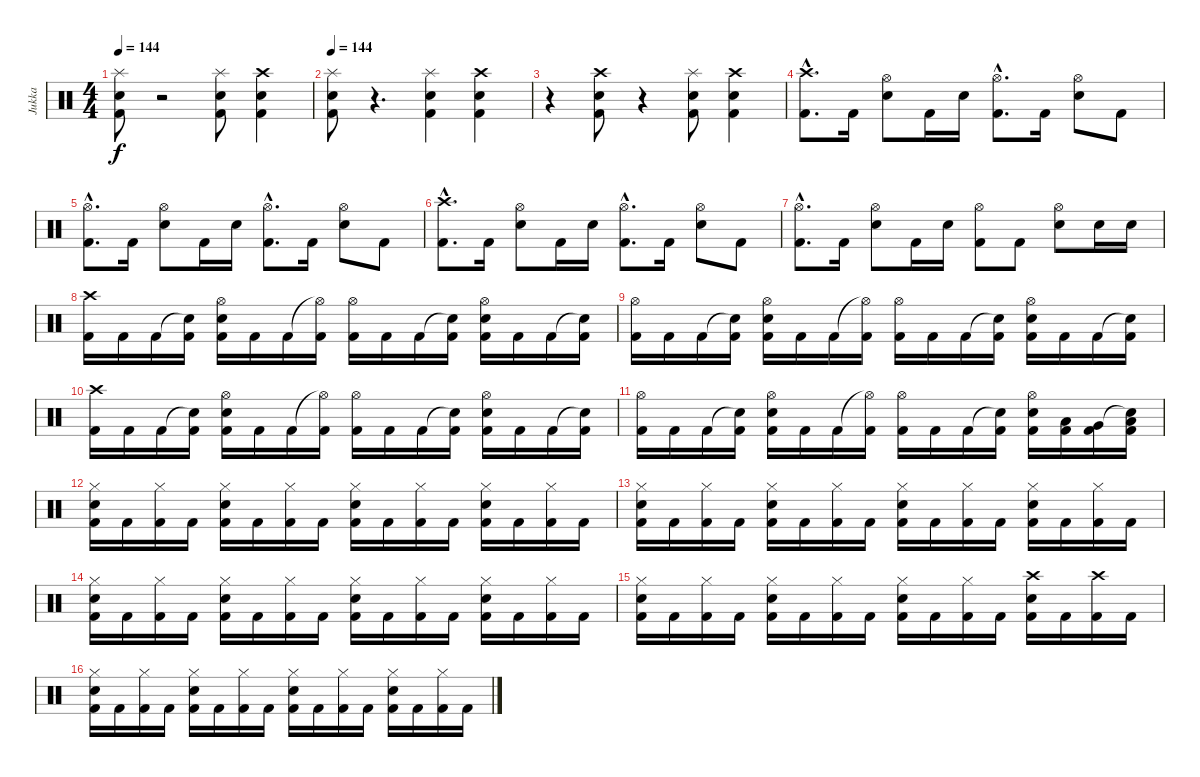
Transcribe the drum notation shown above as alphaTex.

\track ("Jukka" "Jukka") {instrument percussion}
\staff {score}
\articulation defaults
\ts (4 4)
\tempo 144
\clef neutral
\ks c
("Splash (hit)" "Electric Snare (hit)" "Kick (hit) 2").8{dy f} r.2 ("Splash (hit)" "Electric Snare (hit)" "Kick (hit) 2").8 ("Crash high (hit)" "Electric Snare (hit)" "Kick (hit) 2").4 |
\tempo 144
("Splash (hit)" "Electric Snare (hit)" "Kick (hit) 2").8 r.4{d} ("Splash (hit)" "Electric Snare (hit)" "Kick (hit) 2").4 ("Crash high (hit)" "Electric Snare (hit)" "Kick (hit) 2").4 |
r.4 ("Crash high (hit)" "Electric Snare (hit)" "Kick (hit) 2").8 r.4 ("Splash (hit)" "Electric Snare (hit)" "Kick (hit) 2").8 ("Crash high (hit)" "Electric Snare (hit)" "Kick (hit) 2").4 |
("Crash high (hit)"{hac} "Kick (hit) 2"{hac}).8{d} "Kick (hit) 2".16 ("Hi-Hat (open)" "Electric Snare (hit)").8 "Kick (hit) 2".16 "Electric Snare (hit)".16 ("Hi-Hat (open)"{hac} "Kick (hit) 2"{hac}).8{d} "Kick (hit) 2".16 ("Hi-Hat (open)" "Electric Snare (hit)").8 "Kick (hit) 2".8 |
("Hi-Hat (open)"{hac} "Kick (hit) 2"{hac}).8{d} "Kick (hit) 2".16 ("Hi-Hat (open)" "Electric Snare (hit)").8 "Kick (hit) 2".16 "Electric Snare (hit)".16 ("Hi-Hat (open)"{hac} "Kick (hit) 2"{hac}).8{d} "Kick (hit) 2".16 ("Hi-Hat (open)" "Electric Snare (hit)").8 "Kick (hit) 2".8 |
("Crash high (hit)"{hac} "Kick (hit) 2"{hac}).8{d} "Kick (hit) 2".16 ("Hi-Hat (open)" "Electric Snare (hit)").8 "Kick (hit) 2".16 "Electric Snare (hit)".16 ("Hi-Hat (open)"{hac} "Kick (hit) 2"{hac}).8{d} "Kick (hit) 2".16 ("Hi-Hat (open)" "Electric Snare (hit)").8 "Kick (hit) 2".8 |
("Hi-Hat (open)"{hac} "Kick (hit) 2"{hac}).8{d} "Kick (hit) 2".16 ("Hi-Hat (open)" "Electric Snare (hit)").8 "Kick (hit) 2".16 "Electric Snare (hit)".16 ("Hi-Hat (open)" "Kick (hit) 2").8 "Kick (hit) 2".8 ("Hi-Hat (open)" "Electric Snare (hit)").8 "Electric Snare (hit)".16 "Electric Snare (hit)".16 |
("Crash high (hit)" "Kick (hit) 2").16 "Kick (hit) 2".16 "Kick (hit) 2".16 ("Snare (hit)"{t} "Kick (hit) 2").16 ("Hi-Hat (open)" "Electric Snare (hit)" "Kick (hit) 2").16 "Kick (hit) 2".16 "Kick (hit) 2".16 ("Hi-Hat (open)"{t} "Kick (hit) 2").16 ("Hi-Hat (open)" "Kick (hit) 2").16 "Kick (hit) 2".16 "Kick (hit) 2".16 ("Snare (hit)"{t} "Kick (hit) 2").16 ("Hi-Hat (open)" "Electric Snare (hit)" "Kick (hit) 2").16 "Kick (hit) 2".16 "Kick (hit) 2".16 ("Snare (hit)"{t} "Kick (hit) 2").16 |
("Hi-Hat (open)" "Kick (hit) 2").16 "Kick (hit) 2".16 "Kick (hit) 2".16 ("Snare (hit)"{t} "Kick (hit) 2").16 ("Hi-Hat (open)" "Electric Snare (hit)" "Kick (hit) 2").16 "Kick (hit) 2".16 "Kick (hit) 2".16 ("Hi-Hat (open)"{t} "Kick (hit) 2").16 ("Hi-Hat (open)" "Kick (hit) 2").16 "Kick (hit) 2".16 "Kick (hit) 2".16 ("Snare (hit)"{t} "Kick (hit) 2").16 ("Hi-Hat (open)" "Electric Snare (hit)" "Kick (hit) 2").16 "Kick (hit) 2".16 "Kick (hit) 2".16 ("Snare (hit)"{t} "Kick (hit) 2").16 |
("Crash high (hit)" "Kick (hit) 2").16 "Kick (hit) 2".16 "Kick (hit) 2".16 ("Snare (hit)"{t} "Kick (hit) 2").16 ("Hi-Hat (open)" "Electric Snare (hit)" "Kick (hit) 2").16 "Kick (hit) 2".16 "Kick (hit) 2".16 ("Hi-Hat (open)"{t} "Kick (hit) 2").16 ("Hi-Hat (open)" "Kick (hit) 2").16 "Kick (hit) 2".16 "Kick (hit) 2".16 ("Snare (hit)"{t} "Kick (hit) 2").16 ("Hi-Hat (open)" "Electric Snare (hit)" "Kick (hit) 2").16 "Kick (hit) 2".16 "Kick (hit) 2".16 ("Snare (hit)"{t} "Kick (hit) 2").16 |
("Hi-Hat (open)" "Kick (hit) 2").16 "Kick (hit) 2".16 "Kick (hit) 2".16 ("Snare (hit)"{t} "Kick (hit) 2").16 ("Hi-Hat (open)" "Electric Snare (hit)" "Kick (hit) 2").16 "Kick (hit) 2".16 "Kick (hit) 2".16 ("Hi-Hat (open)"{t} "Kick (hit) 2").16 ("Hi-Hat (open)" "Kick (hit) 2").16 "Kick (hit) 2".16 "Kick (hit) 2".16 ("Snare (hit)"{t} "Kick (hit) 2").16 ("Hi-Hat (open)" "Electric Snare (hit)" "Kick (hit) 2").16 ("Low Tom (hit)" "Kick (hit) 2").16 ("Very Low Tom (hit)" "Kick (hit) 2").16 ("Snare (hit)"{t} "Low Floor Tom (hit)" "Kick (hit) 2").16 |
("Hi-Hat (closed)" "Electric Snare (hit)" "Kick (hit) 2").16 "Kick (hit) 2".16 ("Hi-Hat (closed)" "Kick (hit) 2").16 "Kick (hit) 2".16 ("Hi-Hat (closed)" "Electric Snare (hit)" "Kick (hit) 2").16 "Kick (hit) 2".16 ("Hi-Hat (closed)" "Kick (hit) 2").16 "Kick (hit) 2".16 ("Hi-Hat (closed)" "Electric Snare (hit)" "Kick (hit) 2").16 "Kick (hit) 2".16 ("Hi-Hat (closed)" "Kick (hit) 2").16 "Kick (hit) 2".16 ("Hi-Hat (closed)" "Electric Snare (hit)" "Kick (hit) 2").16 "Kick (hit) 2".16 ("Hi-Hat (closed)" "Kick (hit) 2").16 "Kick (hit) 2".16 |
("Hi-Hat (closed)" "Electric Snare (hit)" "Kick (hit) 2").16 "Kick (hit) 2".16 ("Hi-Hat (closed)" "Kick (hit) 2").16 "Kick (hit) 2".16 ("Hi-Hat (closed)" "Electric Snare (hit)" "Kick (hit) 2").16 "Kick (hit) 2".16 ("Hi-Hat (closed)" "Kick (hit) 2").16 "Kick (hit) 2".16 ("Hi-Hat (closed)" "Electric Snare (hit)" "Kick (hit) 2").16 "Kick (hit) 2".16 ("Hi-Hat (closed)" "Kick (hit) 2").16 "Kick (hit) 2".16 ("Hi-Hat (closed)" "Electric Snare (hit)" "Kick (hit) 2").16 "Kick (hit) 2".16 ("Hi-Hat (closed)" "Kick (hit) 2").16 "Kick (hit) 2".16 |
("Hi-Hat (closed)" "Electric Snare (hit)" "Kick (hit) 2").16 "Kick (hit) 2".16 ("Hi-Hat (closed)" "Kick (hit) 2").16 "Kick (hit) 2".16 ("Hi-Hat (closed)" "Electric Snare (hit)" "Kick (hit) 2").16 "Kick (hit) 2".16 ("Hi-Hat (closed)" "Kick (hit) 2").16 "Kick (hit) 2".16 ("Hi-Hat (closed)" "Electric Snare (hit)" "Kick (hit) 2").16 "Kick (hit) 2".16 ("Hi-Hat (closed)" "Kick (hit) 2").16 "Kick (hit) 2".16 ("Hi-Hat (closed)" "Electric Snare (hit)" "Kick (hit) 2").16 "Kick (hit) 2".16 ("Hi-Hat (closed)" "Kick (hit) 2").16 "Kick (hit) 2".16 |
("Hi-Hat (closed)" "Electric Snare (hit)" "Kick (hit) 2").16 "Kick (hit) 2".16 ("Hi-Hat (closed)" "Kick (hit) 2").16 "Kick (hit) 2".16 ("Hi-Hat (closed)" "Electric Snare (hit)" "Kick (hit) 2").16 "Kick (hit) 2".16 ("Hi-Hat (closed)" "Kick (hit) 2").16 "Kick (hit) 2".16 ("Hi-Hat (closed)" "Electric Snare (hit)" "Kick (hit) 2").16 "Kick (hit) 2".16 ("Hi-Hat (closed)" "Kick (hit) 2").16 "Kick (hit) 2".16 ("Crash high (hit)" "Electric Snare (hit)" "Kick (hit) 2").16 "Kick (hit) 2".16 ("Crash high (hit)" "Kick (hit) 2").16 "Kick (hit) 2".16 |
("Hi-Hat (closed)" "Electric Snare (hit)" "Kick (hit) 2").16 "Kick (hit) 2".16 ("Hi-Hat (closed)" "Kick (hit) 2").16 "Kick (hit) 2".16 ("Hi-Hat (closed)" "Electric Snare (hit)" "Kick (hit) 2").16 "Kick (hit) 2".16 ("Hi-Hat (closed)" "Kick (hit) 2").16 "Kick (hit) 2".16 ("Hi-Hat (closed)" "Electric Snare (hit)" "Kick (hit) 2").16 "Kick (hit) 2".16 ("Hi-Hat (closed)" "Kick (hit) 2").16 "Kick (hit) 2".16 ("Hi-Hat (closed)" "Electric Snare (hit)" "Kick (hit) 2").16 "Kick (hit) 2".16 ("Hi-Hat (closed)" "Kick (hit) 2").16 "Kick (hit) 2".16
